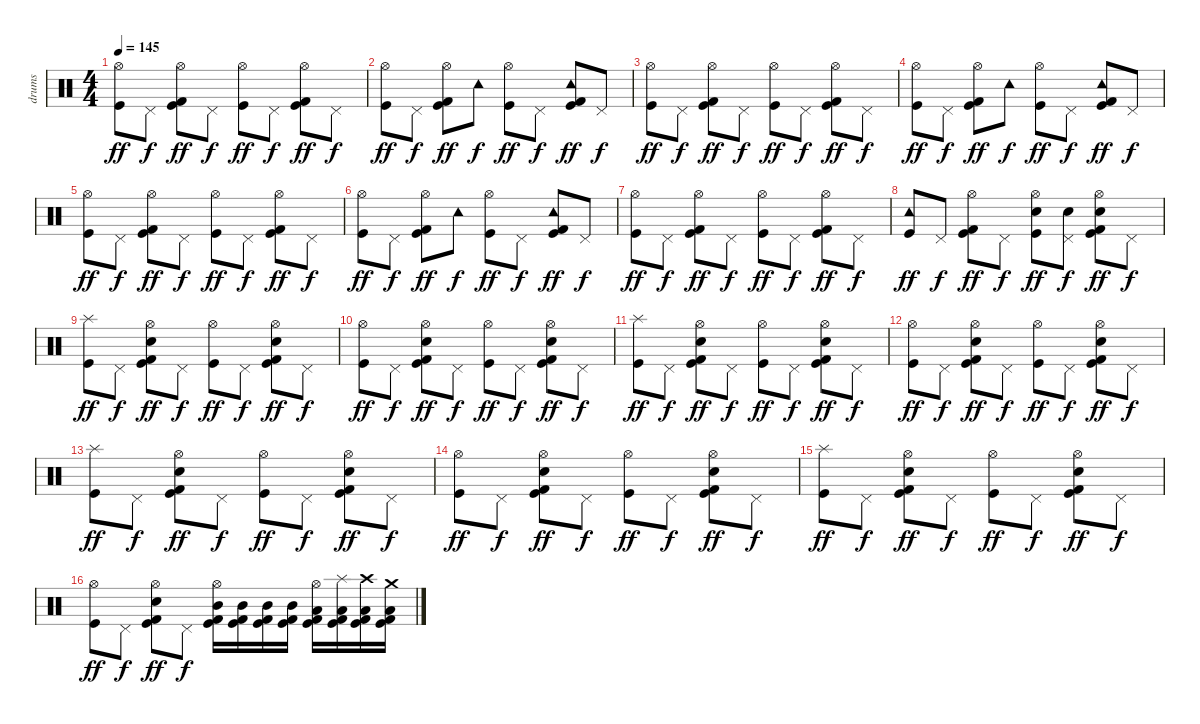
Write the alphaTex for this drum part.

\track ("drums" "drums") {instrument percussion}
\staff {score}
\articulation defaults
\ts (4 4)
\tempo 145
\clef neutral
\ks c
("Hi-Hat (open)" "Kick (hit)").8{dy ff} "Pedal Hi-Hat (hit)".8{dy f} ("Hi-Hat (open)" "Kick (hit) 2" "Kick (hit)").8{dy ff} "Pedal Hi-Hat (hit)".8{dy f} ("Hi-Hat (open)" "Kick (hit)").8{dy ff} "Pedal Hi-Hat (hit)".8{dy f} ("Hi-Hat (open)" "Kick (hit) 2" "Kick (hit)").8{dy ff} "Pedal Hi-Hat (hit)".8{dy f} |
("Hi-Hat (open)" "Kick (hit)").8{dy ff} "Pedal Hi-Hat (hit)".8{dy f} ("Hi-Hat (open)" "Kick (hit) 2" "Kick (hit)").8{dy ff} "Tambourine (hit)".8{dy f} ("Hi-Hat (open)" "Kick (hit)").8{dy ff} "Pedal Hi-Hat (hit)".8{dy f} ("Tambourine (hit)" "Kick (hit) 2" "Kick (hit)").8{dy ff} "Pedal Hi-Hat (hit)".8{dy f} |
("Hi-Hat (open)" "Kick (hit)").8{dy ff} "Pedal Hi-Hat (hit)".8{dy f} ("Hi-Hat (open)" "Kick (hit) 2" "Kick (hit)").8{dy ff} "Pedal Hi-Hat (hit)".8{dy f} ("Hi-Hat (open)" "Kick (hit)").8{dy ff} "Pedal Hi-Hat (hit)".8{dy f} ("Hi-Hat (open)" "Kick (hit) 2" "Kick (hit)").8{dy ff} "Pedal Hi-Hat (hit)".8{dy f} |
("Hi-Hat (open)" "Kick (hit)").8{dy ff} "Pedal Hi-Hat (hit)".8{dy f} ("Hi-Hat (open)" "Kick (hit) 2" "Kick (hit)").8{dy ff} "Tambourine (hit)".8{dy f} ("Hi-Hat (open)" "Kick (hit)").8{dy ff} "Pedal Hi-Hat (hit)".8{dy f} ("Tambourine (hit)" "Kick (hit) 2" "Kick (hit)").8{dy ff} "Pedal Hi-Hat (hit)".8{dy f} |
("Hi-Hat (open)" "Kick (hit)").8{dy ff} "Pedal Hi-Hat (hit)".8{dy f} ("Hi-Hat (open)" "Kick (hit) 2" "Kick (hit)").8{dy ff} "Pedal Hi-Hat (hit)".8{dy f} ("Hi-Hat (open)" "Kick (hit)").8{dy ff} "Pedal Hi-Hat (hit)".8{dy f} ("Hi-Hat (open)" "Kick (hit) 2" "Kick (hit)").8{dy ff} "Pedal Hi-Hat (hit)".8{dy f} |
("Hi-Hat (open)" "Kick (hit)").8{dy ff} "Pedal Hi-Hat (hit)".8{dy f} ("Hi-Hat (open)" "Kick (hit) 2" "Kick (hit)").8{dy ff} "Tambourine (hit)".8{dy f} ("Hi-Hat (open)" "Kick (hit)").8{dy ff} "Pedal Hi-Hat (hit)".8{dy f} ("Tambourine (hit)" "Kick (hit) 2" "Kick (hit)").8{dy ff} "Pedal Hi-Hat (hit)".8{dy f} |
("Hi-Hat (open)" "Kick (hit)").8{dy ff} "Pedal Hi-Hat (hit)".8{dy f} ("Hi-Hat (open)" "Kick (hit) 2" "Kick (hit)").8{dy ff} "Pedal Hi-Hat (hit)".8{dy f} ("Hi-Hat (open)" "Kick (hit)").8{dy ff} "Pedal Hi-Hat (hit)".8{dy f} ("Hi-Hat (open)" "Kick (hit) 2" "Kick (hit)").8{dy ff} "Pedal Hi-Hat (hit)".8{dy f} |
("Tambourine (hit)" "Kick (hit)").8{dy ff} "Pedal Hi-Hat (hit)".8{dy f} ("Hi-Hat (open)" "Kick (hit) 2" "Kick (hit)").8{dy ff} "Pedal Hi-Hat (hit)".8{dy f} ("Hi-Hat (open)" "Hand Clap (hit)" "Kick (hit)").8{dy ff} ("Pedal Hi-Hat (hit)" "Hand Clap (hit)").8{dy f} ("Hi-Hat (open)" "Hand Clap (hit)" "Kick (hit) 2" "Kick (hit)").8{dy ff} "Pedal Hi-Hat (hit)".8{dy f} |
("Splash (hit)" "Kick (hit)").8{dy ff} "Pedal Hi-Hat (hit)".8{dy f} ("Hi-Hat (open)" "Electric Snare (hit)" "Kick (hit) 2" "Kick (hit)").8{dy ff} "Pedal Hi-Hat (hit)".8{dy f} ("Hi-Hat (open)" "Kick (hit)").8{dy ff} "Pedal Hi-Hat (hit)".8{dy f} ("Hi-Hat (open)" "Electric Snare (hit)" "Kick (hit) 2" "Kick (hit)").8{dy ff} "Pedal Hi-Hat (hit)".8{dy f} |
("Hi-Hat (open)" "Kick (hit)").8{dy ff} "Pedal Hi-Hat (hit)".8{dy f} ("Hi-Hat (open)" "Electric Snare (hit)" "Kick (hit) 2" "Kick (hit)").8{dy ff} "Pedal Hi-Hat (hit)".8{dy f} ("Hi-Hat (open)" "Kick (hit)").8{dy ff} "Pedal Hi-Hat (hit)".8{dy f} ("Hi-Hat (open)" "Electric Snare (hit)" "Kick (hit) 2" "Kick (hit)").8{dy ff} "Pedal Hi-Hat (hit)".8{dy f} |
("Splash (hit)" "Kick (hit)").8{dy ff} "Pedal Hi-Hat (hit)".8{dy f} ("Hi-Hat (open)" "Electric Snare (hit)" "Kick (hit) 2" "Kick (hit)").8{dy ff} "Pedal Hi-Hat (hit)".8{dy f} ("Hi-Hat (open)" "Kick (hit)").8{dy ff} "Pedal Hi-Hat (hit)".8{dy f} ("Hi-Hat (open)" "Electric Snare (hit)" "Kick (hit) 2" "Kick (hit)").8{dy ff} "Pedal Hi-Hat (hit)".8{dy f} |
("Hi-Hat (open)" "Kick (hit)").8{dy ff} "Pedal Hi-Hat (hit)".8{dy f} ("Hi-Hat (open)" "Electric Snare (hit)" "Kick (hit) 2" "Kick (hit)").8{dy ff} "Pedal Hi-Hat (hit)".8{dy f} ("Hi-Hat (open)" "Kick (hit)").8{dy ff} "Pedal Hi-Hat (hit)".8{dy f} ("Hi-Hat (open)" "Electric Snare (hit)" "Kick (hit) 2" "Kick (hit)").8{dy ff} "Pedal Hi-Hat (hit)".8{dy f} |
("Splash (hit)" "Kick (hit)").8{dy ff} "Pedal Hi-Hat (hit)".8{dy f} ("Hi-Hat (open)" "Electric Snare (hit)" "Kick (hit) 2" "Kick (hit)").8{dy ff} "Pedal Hi-Hat (hit)".8{dy f} ("Hi-Hat (open)" "Kick (hit)").8{dy ff} "Pedal Hi-Hat (hit)".8{dy f} ("Hi-Hat (open)" "Electric Snare (hit)" "Kick (hit) 2" "Kick (hit)").8{dy ff} "Pedal Hi-Hat (hit)".8{dy f} |
("Hi-Hat (open)" "Kick (hit)").8{dy ff} "Pedal Hi-Hat (hit)".8{dy f} ("Hi-Hat (open)" "Electric Snare (hit)" "Kick (hit) 2" "Kick (hit)").8{dy ff} "Pedal Hi-Hat (hit)".8{dy f} ("Hi-Hat (open)" "Kick (hit)").8{dy ff} "Pedal Hi-Hat (hit)".8{dy f} ("Hi-Hat (open)" "Electric Snare (hit)" "Kick (hit) 2" "Kick (hit)").8{dy ff} "Pedal Hi-Hat (hit)".8{dy f} |
("Splash (hit)" "Kick (hit)").8{dy ff} "Pedal Hi-Hat (hit)".8{dy f} ("Hi-Hat (open)" "Electric Snare (hit)" "Kick (hit) 2" "Kick (hit)").8{dy ff} "Pedal Hi-Hat (hit)".8{dy f} ("Hi-Hat (open)" "Kick (hit)").8{dy ff} "Pedal Hi-Hat (hit)".8{dy f} ("Hi-Hat (open)" "Electric Snare (hit)" "Kick (hit) 2" "Kick (hit)").8{dy ff} "Pedal Hi-Hat (hit)".8{dy f} |
("Hi-Hat (open)" "Kick (hit)").8{dy ff} "Pedal Hi-Hat (hit)".8{dy f} ("Hi-Hat (open)" "Electric Snare (hit)" "Kick (hit) 2" "Kick (hit)").8{dy ff} "Pedal Hi-Hat (hit)".8{dy f} ("Hi-Hat (open)" "Mid Tom (hit)" "Kick (hit) 2" "Kick (hit)").16 ("Mid Tom (hit)" "Kick (hit) 2" "Kick (hit)").16 ("Mid Tom (hit)" "Kick (hit) 2" "Kick (hit)").16 ("Mid Tom (hit)" "Kick (hit) 2" "Kick (hit)").16 ("Hi-Hat (open)" "Low Floor Tom (hit)" "Kick (hit) 2" "Kick (hit)").16 ("Splash (hit)" "Low Floor Tom (hit)" "Kick (hit) 2" "Kick (hit)").16 ("Crash high (hit)" "Low Floor Tom (hit)" "Kick (hit) 2" "Kick (hit)").16 ("Crash medium (hit)" "Low Floor Tom (hit)" "Kick (hit) 2" "Kick (hit)").16
